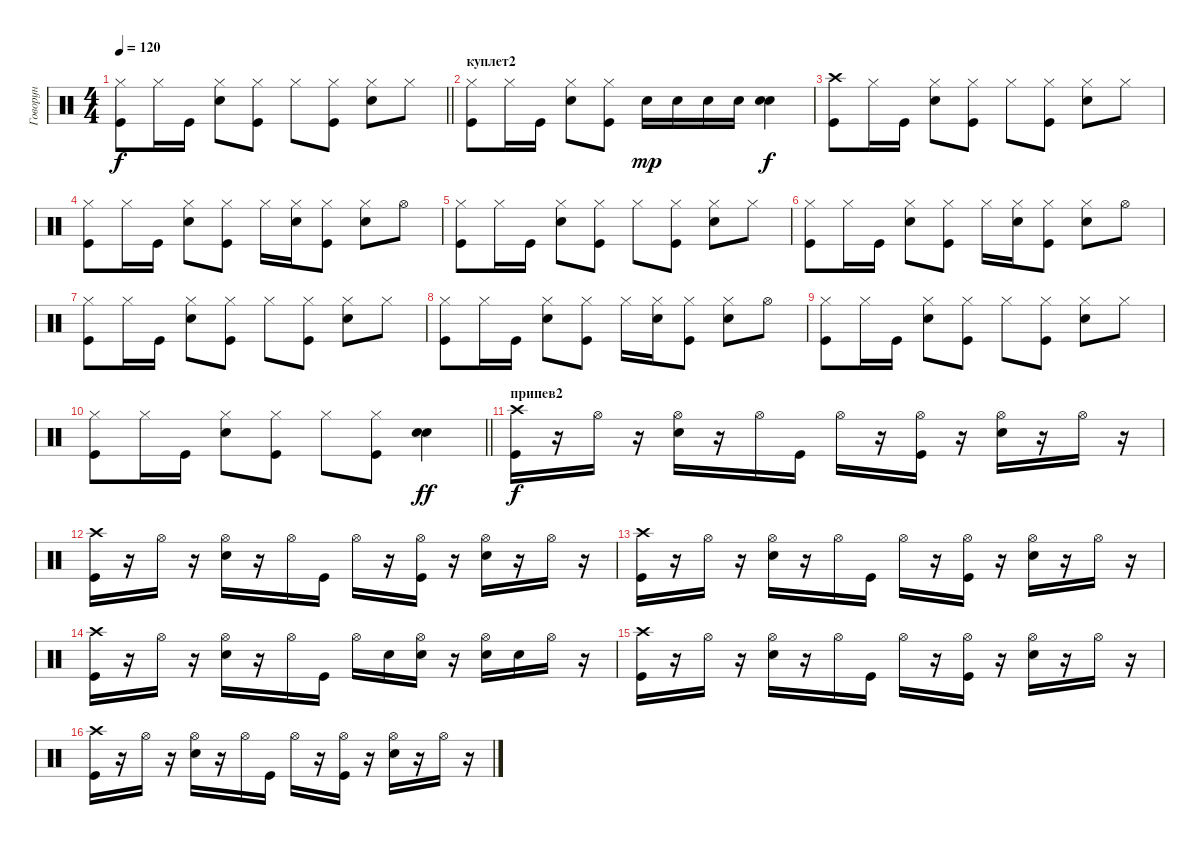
\track ("Говорун" "Говорун") {instrument percussion}
\staff {score}
\articulation defaults
\ts (4 4)
\tempo 120
\clef neutral
\barLineRight lightlight
\ks c
("Hi-Hat (closed)" "Kick (hit)").8{dy f} "Hi-Hat (closed)".16 "Kick (hit)".16 ("Hi-Hat (closed)" "Snare (hit) 2").8 ("Hi-Hat (closed)" "Kick (hit)").8 "Hi-Hat (closed)".8 ("Hi-Hat (closed)" "Kick (hit)").8 ("Hi-Hat (closed)" "Snare (hit) 2").8 "Hi-Hat (closed)".8 |
\section ("" "куплет2")
("Hi-Hat (closed)" "Kick (hit)").8 "Hi-Hat (closed)".16 "Kick (hit)".16 ("Hi-Hat (closed)" "Snare (hit) 2").8 ("Hi-Hat (closed)" "Kick (hit)").8 "Snare (hit) 2".16{dy mp} "Snare (hit) 2".16 "Snare (hit) 2".16 "Snare (hit) 2".16 ("Snare (hit) 2" "Snare (hit) 2").4{dy f} |
("Kick (hit)" "Crash high (hit)").8 "Hi-Hat (closed)".16 "Kick (hit)".16 ("Hi-Hat (closed)" "Snare (hit) 2").8 ("Hi-Hat (closed)" "Kick (hit)").8 "Hi-Hat (closed)".8 ("Hi-Hat (closed)" "Kick (hit)").8 ("Hi-Hat (closed)" "Snare (hit) 2").8 "Hi-Hat (closed)".8 |
("Hi-Hat (closed)" "Kick (hit)").8 "Hi-Hat (closed)".16 "Kick (hit)".16 ("Hi-Hat (closed)" "Snare (hit) 2").8 ("Hi-Hat (closed)" "Kick (hit)").8 "Hi-Hat (closed)".16 ("Hi-Hat (closed)" "Snare (hit) 2").16 ("Hi-Hat (closed)" "Kick (hit)").8 ("Hi-Hat (closed)" "Snare (hit) 2").8 "Hi-Hat (open)".8 |
("Hi-Hat (closed)" "Kick (hit)").8 "Hi-Hat (closed)".16 "Kick (hit)".16 ("Hi-Hat (closed)" "Snare (hit) 2").8 ("Hi-Hat (closed)" "Kick (hit)").8 "Hi-Hat (closed)".8 ("Hi-Hat (closed)" "Kick (hit)").8 ("Hi-Hat (closed)" "Snare (hit) 2").8 "Hi-Hat (closed)".8 |
("Hi-Hat (closed)" "Kick (hit)").8 "Hi-Hat (closed)".16 "Kick (hit)".16 ("Hi-Hat (closed)" "Snare (hit) 2").8 ("Hi-Hat (closed)" "Kick (hit)").8 "Hi-Hat (closed)".16 ("Hi-Hat (closed)" "Snare (hit) 2").16 ("Hi-Hat (closed)" "Kick (hit)").8 ("Hi-Hat (closed)" "Snare (hit) 2").8 "Hi-Hat (open)".8 |
("Hi-Hat (closed)" "Kick (hit)").8 "Hi-Hat (closed)".16 "Kick (hit)".16 ("Hi-Hat (closed)" "Snare (hit) 2").8 ("Hi-Hat (closed)" "Kick (hit)").8 "Hi-Hat (closed)".8 ("Hi-Hat (closed)" "Kick (hit)").8 ("Hi-Hat (closed)" "Snare (hit) 2").8 "Hi-Hat (closed)".8 |
("Hi-Hat (closed)" "Kick (hit)").8 "Hi-Hat (closed)".16 "Kick (hit)".16 ("Hi-Hat (closed)" "Snare (hit) 2").8 ("Hi-Hat (closed)" "Kick (hit)").8 "Hi-Hat (closed)".16 ("Hi-Hat (closed)" "Snare (hit) 2").16 ("Hi-Hat (closed)" "Kick (hit)").8 ("Hi-Hat (closed)" "Snare (hit) 2").8 "Hi-Hat (open)".8 |
("Hi-Hat (closed)" "Kick (hit)").8 "Hi-Hat (closed)".16 "Kick (hit)".16 ("Hi-Hat (closed)" "Snare (hit) 2").8 ("Hi-Hat (closed)" "Kick (hit)").8 "Hi-Hat (closed)".8 ("Hi-Hat (closed)" "Kick (hit)").8 ("Hi-Hat (closed)" "Snare (hit) 2").8 "Hi-Hat (closed)".8 |
\barLineRight lightlight
("Kick (hit)" "Hi-Hat (closed)").8 "Hi-Hat (closed)".16 "Kick (hit)".16 ("Hi-Hat (closed)" "Snare (hit) 2").8 ("Hi-Hat (closed)" "Kick (hit)").8 "Hi-Hat (closed)".8 ("Hi-Hat (closed)" "Kick (hit)").8 ("Snare (hit) 2" "Snare (hit) 2").4{dy ff} |
\section ("" "припев2")
("Crash high (hit)" "Kick (hit)").16{dy f} r.16 "Hi-Hat (open)".16 r.16 ("Hi-Hat (open)" "Snare (hit) 2").16 r.16 "Hi-Hat (open)".16 "Kick (hit)".16 "Hi-Hat (open)".16 r.16 ("Hi-Hat (open)" "Kick (hit)").16 r.16 ("Hi-Hat (open)" "Snare (hit) 2").16 r.16 "Hi-Hat (open)".16 r.16 |
("Crash high (hit)" "Kick (hit)").16 r.16 "Hi-Hat (open)".16 r.16 ("Hi-Hat (open)" "Snare (hit) 2").16 r.16 "Hi-Hat (open)".16 "Kick (hit)".16 "Hi-Hat (open)".16 r.16 ("Hi-Hat (open)" "Kick (hit)").16 r.16 ("Hi-Hat (open)" "Snare (hit) 2").16 r.16 "Hi-Hat (open)".16 r.16 |
("Crash high (hit)" "Kick (hit)").16 r.16 "Hi-Hat (open)".16 r.16 ("Hi-Hat (open)" "Snare (hit) 2").16 r.16 "Hi-Hat (open)".16 "Kick (hit)".16 "Hi-Hat (open)".16 r.16 ("Hi-Hat (open)" "Kick (hit)").16 r.16 ("Hi-Hat (open)" "Snare (hit) 2").16 r.16 "Hi-Hat (open)".16 r.16 |
("Crash high (hit)" "Kick (hit)").16 r.16 "Hi-Hat (open)".16 r.16 ("Hi-Hat (open)" "Snare (hit) 2").16 r.16 "Hi-Hat (open)".16 "Kick (hit)".16 "Hi-Hat (open)".16 "Snare (hit) 2".16 ("Hi-Hat (open)" "Snare (hit) 2").16 r.16 ("Hi-Hat (open)" "Snare (hit) 2").16 "Snare (hit) 2".16 "Hi-Hat (open)".16 r.16 |
("Crash high (hit)" "Kick (hit)").16 r.16 "Hi-Hat (open)".16 r.16 ("Hi-Hat (open)" "Snare (hit) 2").16 r.16 "Hi-Hat (open)".16 "Kick (hit)".16 "Hi-Hat (open)".16 r.16 ("Hi-Hat (open)" "Kick (hit)").16 r.16 ("Hi-Hat (open)" "Snare (hit) 2").16 r.16 "Hi-Hat (open)".16 r.16 |
("Crash high (hit)" "Kick (hit)").16 r.16 "Hi-Hat (open)".16 r.16 ("Hi-Hat (open)" "Snare (hit) 2").16 r.16 "Hi-Hat (open)".16 "Kick (hit)".16 "Hi-Hat (open)".16 r.16 ("Hi-Hat (open)" "Kick (hit)").16 r.16 ("Hi-Hat (open)" "Snare (hit) 2").16 r.16 "Hi-Hat (open)".16 r.16
